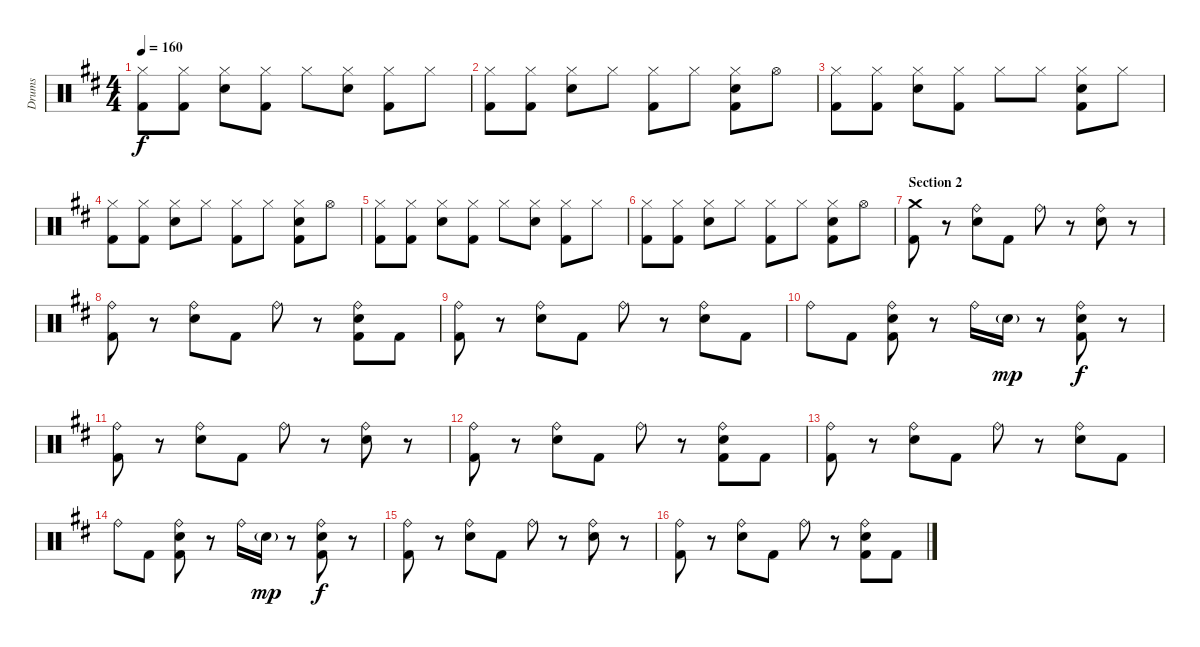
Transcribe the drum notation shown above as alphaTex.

\track ("Drums" "Drums") {instrument percussion}
\staff {score}
\articulation defaults
\ts (4 4)
\tempo 160
\clef neutral
\ks bminor
("Hi-Hat (closed)" "Kick (hit) 2").8{dy f} ("Hi-Hat (closed)" "Kick (hit) 2").8 ("Hi-Hat (closed)" "Snare (hit) 2").8 ("Hi-Hat (closed)" "Kick (hit) 2").8 "Hi-Hat (closed)".8 ("Hi-Hat (closed)" "Snare (hit) 2").8 ("Hi-Hat (closed)" "Kick (hit) 2").8 "Hi-Hat (closed)".8 |
("Hi-Hat (closed)" "Kick (hit) 2").8 ("Hi-Hat (closed)" "Kick (hit) 2").8 ("Hi-Hat (closed)" "Snare (hit) 2").8 "Hi-Hat (closed)".8 ("Hi-Hat (closed)" "Kick (hit) 2").8 "Hi-Hat (closed)".8 ("Hi-Hat (closed)" "Snare (hit) 2" "Kick (hit) 2").8 "Hi-Hat (open)".8 |
("Hi-Hat (closed)" "Kick (hit) 2").8 ("Hi-Hat (closed)" "Kick (hit) 2").8 ("Hi-Hat (closed)" "Snare (hit) 2").8 ("Hi-Hat (closed)" "Kick (hit) 2").8 "Hi-Hat (closed)".8 "Hi-Hat (closed)".8 ("Hi-Hat (closed)" "Snare (hit) 2" "Kick (hit) 2").8 "Hi-Hat (closed)".8 |
("Hi-Hat (closed)" "Kick (hit) 2").8 ("Hi-Hat (closed)" "Kick (hit) 2").8 ("Hi-Hat (closed)" "Snare (hit) 2").8 "Hi-Hat (closed)".8 ("Hi-Hat (closed)" "Kick (hit) 2").8 "Hi-Hat (closed)".8 ("Hi-Hat (closed)" "Snare (hit) 2" "Kick (hit) 2").8 "Hi-Hat (open)".8 |
("Hi-Hat (closed)" "Kick (hit) 2").8 ("Hi-Hat (closed)" "Kick (hit) 2").8 ("Hi-Hat (closed)" "Snare (hit) 2").8 ("Hi-Hat (closed)" "Kick (hit) 2").8 "Hi-Hat (closed)".8 ("Hi-Hat (closed)" "Snare (hit) 2").8 ("Hi-Hat (closed)" "Kick (hit) 2").8 "Hi-Hat (closed)".8 |
("Hi-Hat (closed)" "Kick (hit) 2").8 ("Hi-Hat (closed)" "Kick (hit) 2").8 ("Hi-Hat (closed)" "Snare (hit) 2").8 "Hi-Hat (closed)".8 ("Hi-Hat (closed)" "Kick (hit) 2").8 "Hi-Hat (closed)".8 ("Hi-Hat (closed)" "Snare (hit) 2" "Kick (hit) 2").8 "Hi-Hat (open)".8 |
\section ("" "Section 2")
("Crash medium (hit)" "Kick (hit) 2").8 r.8 ("Ride (bell)" "Snare (hit) 2").8 "Kick (hit) 2".8 "Ride (bell)".8 r.8 ("Ride (bell)" "Snare (hit) 2").8 r.8 |
("Ride (bell)" "Kick (hit) 2").8 r.8 ("Ride (bell)" "Snare (hit) 2").8 "Kick (hit) 2".8 "Ride (bell)".8 r.8 ("Ride (bell)" "Snare (hit) 2" "Kick (hit) 2").8 "Kick (hit) 2".8 |
("Ride (bell)" "Kick (hit) 2").8 r.8 ("Ride (bell)" "Snare (hit) 2").8 "Kick (hit) 2".8 "Ride (bell)".8 r.8 ("Ride (bell)" "Snare (hit) 2").8 "Kick (hit) 2".8 |
"Ride (bell)".8 "Kick (hit) 2".8 ("Ride (bell)" "Snare (hit) 2" "Kick (hit) 2").8 r.8 "Ride (bell)".16 "Snare (hit) 2"{g}.16{dy mp} r.8 ("Ride (bell)" "Snare (hit) 2" "Kick (hit) 2").8{dy f} r.8 |
("Ride (bell)" "Kick (hit) 2").8 r.8 ("Ride (bell)" "Snare (hit) 2").8 "Kick (hit) 2".8 "Ride (bell)".8 r.8 ("Ride (bell)" "Snare (hit) 2").8 r.8 |
("Ride (bell)" "Kick (hit) 2").8 r.8 ("Ride (bell)" "Snare (hit) 2").8 "Kick (hit) 2".8 "Ride (bell)".8 r.8 ("Ride (bell)" "Snare (hit) 2" "Kick (hit) 2").8 "Kick (hit) 2".8 |
("Ride (bell)" "Kick (hit) 2").8 r.8 ("Ride (bell)" "Snare (hit) 2").8 "Kick (hit) 2".8 "Ride (bell)".8 r.8 ("Ride (bell)" "Snare (hit) 2").8 "Kick (hit) 2".8 |
"Ride (bell)".8 "Kick (hit) 2".8 ("Ride (bell)" "Snare (hit) 2" "Kick (hit) 2").8 r.8 "Ride (bell)".16 "Snare (hit) 2"{g}.16{dy mp} r.8 ("Ride (bell)" "Snare (hit) 2" "Kick (hit) 2").8{dy f} r.8 |
("Ride (bell)" "Kick (hit) 2").8 r.8 ("Ride (bell)" "Snare (hit) 2").8 "Kick (hit) 2".8 "Ride (bell)".8 r.8 ("Ride (bell)" "Snare (hit) 2").8 r.8 |
("Ride (bell)" "Kick (hit) 2").8 r.8 ("Ride (bell)" "Snare (hit) 2").8 "Kick (hit) 2".8 "Ride (bell)".8 r.8 ("Ride (bell)" "Snare (hit) 2" "Kick (hit) 2").8 "Kick (hit) 2".8
